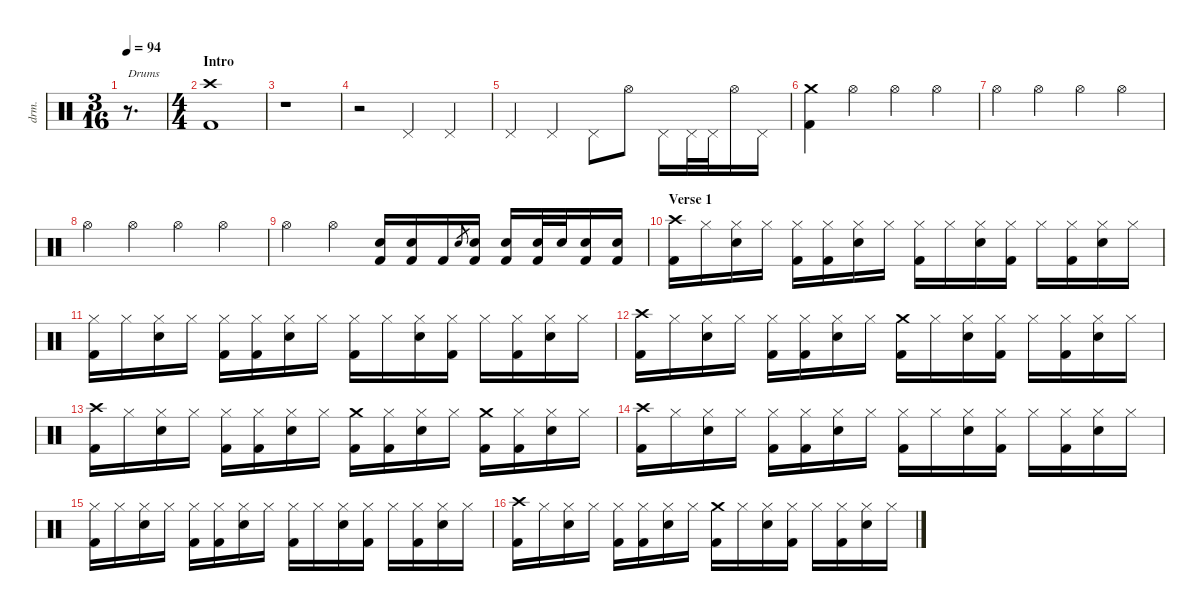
\defaultSystemsLayout 4
\hideDynamics
\bracketExtendMode nobrackets
\track ("Drums" "drm.") {instrument percussion}
\staff {score}
\articulation defaults
\ts (3 16)
\tempo 94
\clef neutral
\ks c
r.8{d txt "Drums" dy f} |
\ts (4 4)
\section ("" "Intro")
("Crash high (hit)" "Kick (hit) 2").1 |
r.1 |
r.2 "Pedal Hi-Hat (hit)".4 "Pedal Hi-Hat (hit)".4 |
"Pedal Hi-Hat (hit)".4 "Pedal Hi-Hat (hit)".4 "Pedal Hi-Hat (hit)".8 "Hi-Hat (open)".8 "Pedal Hi-Hat (hit)".16 "Pedal Hi-Hat (hit)".32 "Pedal Hi-Hat (hit)".32 "Hi-Hat (open)".16 "Pedal Hi-Hat (hit)".16 |
("Crash medium (hit)" "Kick (hit) 2").4 "Hi-Hat (open)".4 "Hi-Hat (open)".4 "Hi-Hat (open)".4 |
"Hi-Hat (open)".4 "Hi-Hat (open)".4 "Hi-Hat (open)".4 "Hi-Hat (open)".4 |
"Hi-Hat (open)".4 "Hi-Hat (open)".4 "Hi-Hat (open)".4 "Hi-Hat (open)".4 |
"Hi-Hat (open)".4 "Hi-Hat (open)".4 ("Snare (hit) 2" "Kick (hit) 2").16 ("Snare (hit) 2" "Kick (hit) 2").16 "Kick (hit) 2".16 "Electric Snare (hit)".8{gr dy mf} ("Snare (hit) 2" "Kick (hit) 2").16{dy f} ("Snare (hit) 2" "Kick (hit) 2").16 ("Snare (hit) 2" "Kick (hit) 2").32 "Snare (hit) 2".32 ("Snare (hit) 2" "Kick (hit) 2").16 ("Snare (hit) 2" "Kick (hit) 2").16 |
\section ("" "Verse 1")
("Crash high (hit)" "Kick (hit) 2").16 "Hi-Hat (closed)".16 ("Hi-Hat (closed)" "Snare (hit) 2").16 "Hi-Hat (closed)".16 ("Hi-Hat (closed)" "Kick (hit) 2").16 ("Hi-Hat (closed)" "Kick (hit) 2").16 ("Hi-Hat (closed)" "Snare (hit) 2").16 "Hi-Hat (closed)".16 ("Hi-Hat (closed)" "Kick (hit) 2").16 "Hi-Hat (closed)".16 ("Hi-Hat (closed)" "Snare (hit) 2").16 ("Hi-Hat (closed)" "Kick (hit) 2").16 "Hi-Hat (closed)".16 ("Hi-Hat (closed)" "Kick (hit) 2").16 ("Hi-Hat (closed)" "Snare (hit) 2").16 "Hi-Hat (closed)".16 |
("Hi-Hat (closed)" "Kick (hit) 2").16 "Hi-Hat (closed)".16 ("Hi-Hat (closed)" "Snare (hit) 2").16 "Hi-Hat (closed)".16 ("Hi-Hat (closed)" "Kick (hit) 2").16 ("Hi-Hat (closed)" "Kick (hit) 2").16 ("Hi-Hat (closed)" "Snare (hit) 2").16 "Hi-Hat (closed)".16 ("Hi-Hat (closed)" "Kick (hit) 2").16 "Hi-Hat (closed)".16 ("Hi-Hat (closed)" "Snare (hit) 2").16 ("Hi-Hat (closed)" "Kick (hit) 2").16 "Hi-Hat (closed)".16 ("Hi-Hat (closed)" "Kick (hit) 2").16 ("Hi-Hat (closed)" "Snare (hit) 2").16 "Hi-Hat (closed)".16 |
("Crash high (hit)" "Kick (hit) 2").16 "Hi-Hat (closed)".16 ("Hi-Hat (closed)" "Snare (hit) 2").16 "Hi-Hat (closed)".16 ("Hi-Hat (closed)" "Kick (hit) 2").16 ("Hi-Hat (closed)" "Kick (hit) 2").16 ("Hi-Hat (closed)" "Snare (hit) 2").16 "Hi-Hat (closed)".16 ("Crash medium (hit)" "Kick (hit) 2").16 "Hi-Hat (closed)".16 ("Hi-Hat (closed)" "Snare (hit) 2").16 ("Hi-Hat (closed)" "Kick (hit) 2").16 "Hi-Hat (closed)".16 ("Hi-Hat (closed)" "Kick (hit) 2").16 ("Hi-Hat (closed)" "Snare (hit) 2").16 "Hi-Hat (closed)".16 |
("Crash high (hit)" "Kick (hit) 2").16 "Hi-Hat (closed)".16 ("Hi-Hat (closed)" "Snare (hit) 2").16 "Hi-Hat (closed)".16 ("Hi-Hat (closed)" "Kick (hit) 2").16 ("Hi-Hat (closed)" "Kick (hit) 2").16 ("Hi-Hat (closed)" "Snare (hit) 2").16 "Hi-Hat (closed)".16 ("Crash medium (hit)" "Kick (hit) 2").16 ("Hi-Hat (closed)" "Kick (hit) 2").16 ("Hi-Hat (closed)" "Snare (hit) 2").16 "Hi-Hat (closed)".16 ("Crash medium (hit)" "Kick (hit) 2").16 ("Hi-Hat (closed)" "Kick (hit) 2").16 ("Hi-Hat (closed)" "Snare (hit) 2").16 "Hi-Hat (closed)".16 |
("Crash high (hit)" "Kick (hit) 2").16 "Hi-Hat (closed)".16 ("Hi-Hat (closed)" "Snare (hit) 2").16 "Hi-Hat (closed)".16 ("Hi-Hat (closed)" "Kick (hit) 2").16 ("Hi-Hat (closed)" "Kick (hit) 2").16 ("Hi-Hat (closed)" "Snare (hit) 2").16 "Hi-Hat (closed)".16 ("Hi-Hat (closed)" "Kick (hit) 2").16 "Hi-Hat (closed)".16 ("Hi-Hat (closed)" "Snare (hit) 2").16 ("Hi-Hat (closed)" "Kick (hit) 2").16 "Hi-Hat (closed)".16 ("Hi-Hat (closed)" "Kick (hit) 2").16 ("Hi-Hat (closed)" "Snare (hit) 2").16 "Hi-Hat (closed)".16 |
("Hi-Hat (closed)" "Kick (hit) 2").16 "Hi-Hat (closed)".16 ("Hi-Hat (closed)" "Snare (hit) 2").16 "Hi-Hat (closed)".16 ("Hi-Hat (closed)" "Kick (hit) 2").16 ("Hi-Hat (closed)" "Kick (hit) 2").16 ("Hi-Hat (closed)" "Snare (hit) 2").16 "Hi-Hat (closed)".16 ("Hi-Hat (closed)" "Kick (hit) 2").16 "Hi-Hat (closed)".16 ("Hi-Hat (closed)" "Snare (hit) 2").16 ("Hi-Hat (closed)" "Kick (hit) 2").16 "Hi-Hat (closed)".16 ("Hi-Hat (closed)" "Kick (hit) 2").16 ("Hi-Hat (closed)" "Snare (hit) 2").16 "Hi-Hat (closed)".16 |
("Crash high (hit)" "Kick (hit) 2").16 "Hi-Hat (closed)".16 ("Hi-Hat (closed)" "Snare (hit) 2").16 "Hi-Hat (closed)".16 ("Hi-Hat (closed)" "Kick (hit) 2").16 ("Hi-Hat (closed)" "Kick (hit) 2").16 ("Hi-Hat (closed)" "Snare (hit) 2").16 "Hi-Hat (closed)".16 ("Crash medium (hit)" "Kick (hit) 2").16 "Hi-Hat (closed)".16 ("Hi-Hat (closed)" "Snare (hit) 2").16 ("Hi-Hat (closed)" "Kick (hit) 2").16 "Hi-Hat (closed)".16 ("Hi-Hat (closed)" "Kick (hit) 2").16 ("Hi-Hat (closed)" "Snare (hit) 2").16 "Hi-Hat (closed)".16
